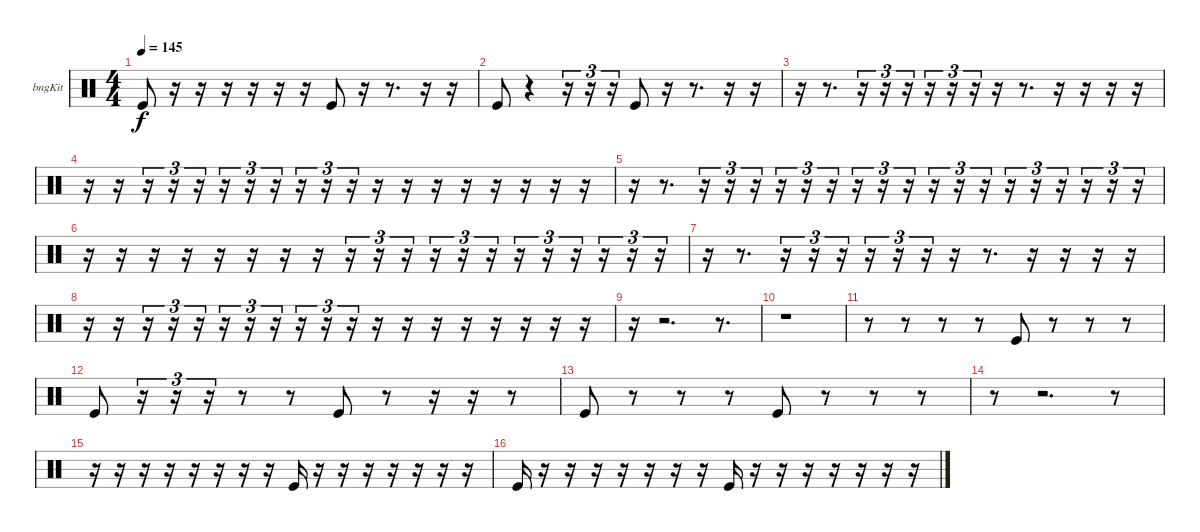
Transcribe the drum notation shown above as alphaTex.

\bracketExtendMode groupsimilarinstruments
\firstSystemTrackNameOrientation horizontal
\otherSystemsTrackNameOrientation horizontal
\track ("Bongos" "bngKit") {instrument percussion}
\staff {score}
\articulation defaults
\ts (4 4)
\tempo 145
\clef neutral
\ks c "Kick (hit)".8{dy f}
r.16 r.16 r.16 r.16 r.16 r.16 "Kick (hit)".8 r.16 r.8{d} r.16 r.16 |
"Kick (hit)".8 r.4 r.16{tu (3 2)} r.16{tu (3 2)} r.16{tu (3 2)} "Kick (hit)".8 r.16 r.8{d} r.16 r.16 |
r.16 r.8{d} r.16{tu (3 2)} r.16{tu (3 2)} r.16{tu (3 2)} r.16{tu (3 2)} r.16{tu (3 2)} r.16{tu (3 2)} r.16 r.8{d} r.16 r.16 r.16 r.16 |
r.16 r.16 r.16{tu (3 2)} r.16{tu (3 2)} r.16{tu (3 2)} r.16{tu (3 2)} r.16{tu (3 2)} r.16{tu (3 2)} r.16{tu (3 2)} r.16{tu (3 2)} r.16{tu (3 2)} r.16 r.16 r.16 r.16 r.16 r.16 r.16 r.16 |
r.16 r.8{d} r.16{tu (3 2)} r.16{tu (3 2)} r.16{tu (3 2)} r.16{tu (3 2)} r.16{tu (3 2)} r.16{tu (3 2)} r.16{tu (3 2)} r.16{tu (3 2)} r.16{tu (3 2)} r.16{tu (3 2)} r.16{tu (3 2)} r.16{tu (3 2)} r.16{tu (3 2)} r.16{tu (3 2)} r.16{tu (3 2)} r.16{tu (3 2)} r.16{tu (3 2)} r.16{tu (3 2)} |
r.16 r.16 r.16 r.16 r.16 r.16 r.16 r.16 r.16{tu (3 2)} r.16{tu (3 2)} r.16{tu (3 2)} r.16{tu (3 2)} r.16{tu (3 2)} r.16{tu (3 2)} r.16{tu (3 2)} r.16{tu (3 2)} r.16{tu (3 2)} r.16{tu (3 2)} r.16{tu (3 2)} r.16{tu (3 2)} |
r.16 r.8{d} r.16{tu (3 2)} r.16{tu (3 2)} r.16{tu (3 2)} r.16{tu (3 2)} r.16{tu (3 2)} r.16{tu (3 2)} r.16 r.8{d} r.16 r.16 r.16 r.16 |
r.16 r.16 r.16{tu (3 2)} r.16{tu (3 2)} r.16{tu (3 2)} r.16{tu (3 2)} r.16{tu (3 2)} r.16{tu (3 2)} r.16{tu (3 2)} r.16{tu (3 2)} r.16{tu (3 2)} r.16 r.16 r.16 r.16 r.16 r.16 r.16 r.16 |
r.16 r.2{d} r.8{d} |
r.1 |
r.8 r.8 r.8 r.8 "Kick (hit)".8 r.8 r.8 r.8 |
"Kick (hit)".8 r.16{tu (3 2)} r.16{tu (3 2)} r.16{tu (3 2)} r.8 r.8 "Kick (hit)".8 r.8 r.16 r.16 r.8 |
"Kick (hit)".8 r.8 r.8 r.8 "Kick (hit)".8 r.8 r.8 r.8 |
r.8 r.2{d} r.8 |
r.16 r.16 r.16 r.16 r.16 r.16 r.16 r.16 "Kick (hit)".16 r.16 r.16 r.16 r.16 r.16 r.16 r.16 |
"Kick (hit)".16 r.16 r.16 r.16 r.16 r.16 r.16 r.16 "Kick (hit)".16 r.16 r.16 r.16 r.16 r.16 r.16 r.16
